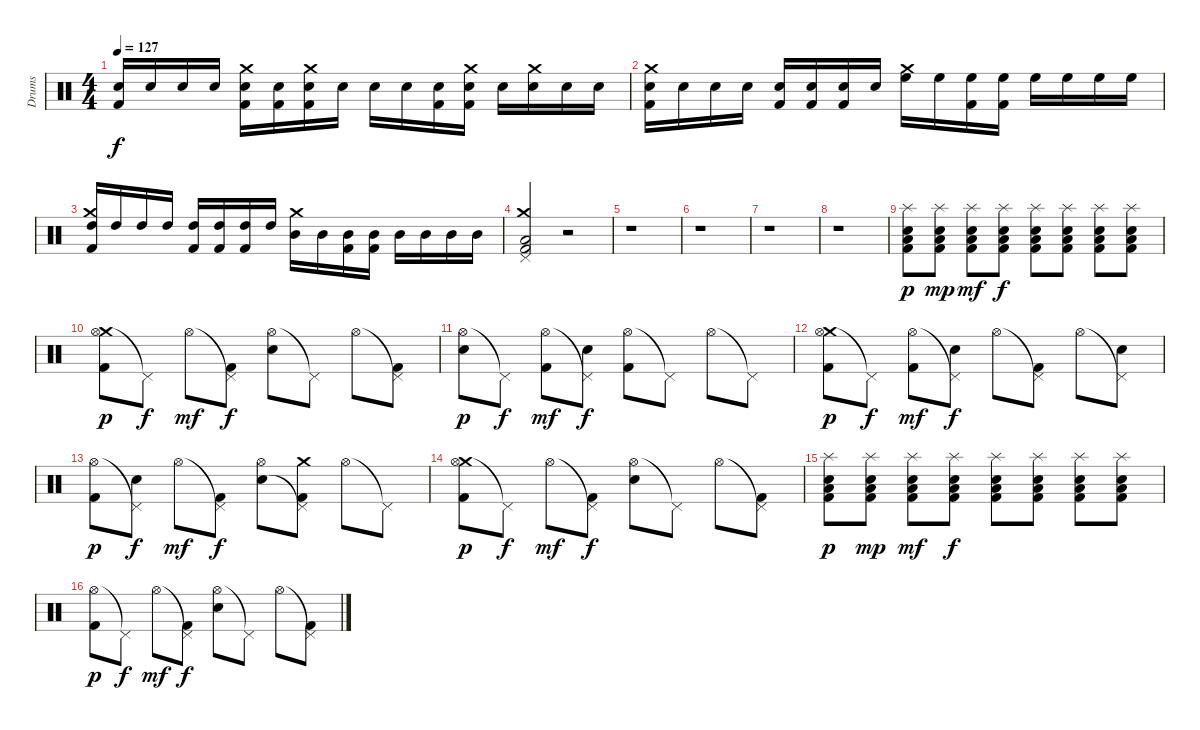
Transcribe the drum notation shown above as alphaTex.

\track ("Drums" "Drums") {instrument percussion}
\staff {score}
\articulation defaults
\ts (4 4)
\tempo 127
\clef neutral
\ks c
("Electric Snare (hit)" "Kick (hit) 2").16{dy f} "Electric Snare (hit)".16 "Electric Snare (hit)".16 "Electric Snare (hit)".16 ("Crash medium (hit)" "Electric Snare (hit)" "Kick (hit) 2").16 ("Electric Snare (hit)" "Kick (hit) 2").16 ("Crash medium (hit)" "Electric Snare (hit)" "Kick (hit) 2").16 "Electric Snare (hit)".16 "Electric Snare (hit)".16 "Electric Snare (hit)".16 ("Electric Snare (hit)" "Kick (hit) 2").16 ("Crash medium (hit)" "Electric Snare (hit)" "Kick (hit) 2").16 "Electric Snare (hit)".16 ("Crash medium (hit)" "Electric Snare (hit)").16 "Electric Snare (hit)".16 "Electric Snare (hit)".16 |
("Crash medium (hit)" "Electric Snare (hit)" "Kick (hit) 2").16 "Electric Snare (hit)".16 "Electric Snare (hit)".16 "Electric Snare (hit)".16 ("Electric Snare (hit)" "Kick (hit) 2").16 ("Electric Snare (hit)" "Kick (hit) 2").16 ("Electric Snare (hit)" "Kick (hit) 2").16 "Electric Snare (hit)".16 ("Crash medium (hit)" "High Floor Tom (hit)").16 "High Floor Tom (hit)".16 ("High Floor Tom (hit)" "Kick (hit) 2").16 ("High Floor Tom (hit)" "Kick (hit) 2").16 "High Floor Tom (hit)".16 "High Floor Tom (hit)".16 "High Floor Tom (hit)".16 "High Floor Tom (hit)".16 |
("Crash medium (hit)" "High Tom (hit)" "Kick (hit) 2").16 "High Tom (hit)".16 "High Tom (hit)".16 "High Tom (hit)".16 ("High Tom (hit)" "Kick (hit) 2").16 ("High Tom (hit)" "Kick (hit) 2").16 ("High Tom (hit)" "Kick (hit) 2").16 "High Tom (hit)".16 ("Crash medium (hit)" "Mid Tom (hit)").16 "Mid Tom (hit)".16 ("Mid Tom (hit)" "Kick (hit) 2").16 ("Mid Tom (hit)" "Kick (hit) 2").16 "Mid Tom (hit)".16 "Mid Tom (hit)".16 "Mid Tom (hit)".16 "Mid Tom (hit)".16 |
("Crash medium (hit)" "Pedal Hi-Hat (hit)" "Low Tom (hit)" "Kick (hit) 2").2 r.2 |
r.1 |
r.1 |
r.1 |
r.1 |
("Splash (hit)" "Low Tom (hit)" "Electric Snare (hit)" "Kick (hit) 2").8{dy p} ("Splash (hit)" "Low Tom (hit)" "Electric Snare (hit)" "Kick (hit) 2").8{dy mp} ("Splash (hit)" "Low Tom (hit)" "Electric Snare (hit)" "Kick (hit) 2").8{dy mf} ("Splash (hit)" "Low Tom (hit)" "Electric Snare (hit)" "Kick (hit) 2").8{dy f} ("Splash (hit)" "Low Tom (hit)" "Electric Snare (hit)" "Kick (hit) 2").8 ("Splash (hit)" "Low Tom (hit)" "Electric Snare (hit)" "Kick (hit) 2").8 ("Splash (hit)" "Low Tom (hit)" "Electric Snare (hit)" "Kick (hit) 2").8 ("Splash (hit)" "Low Tom (hit)" "Electric Snare (hit)" "Kick (hit) 2").8 |
("Crash medium (hit)" "Hi-Hat (open)" "Kick (hit) 2").8{dy p} "Pedal Hi-Hat (hit)"{t}.8{dy f} "Hi-Hat (open)".8{dy mf} ("Pedal Hi-Hat (hit)"{t} "Kick (hit) 2").8{dy f} ("Hi-Hat (open)" "Electric Snare (hit)").8 "Pedal Hi-Hat (hit)"{t}.8 "Hi-Hat (open)".8 ("Pedal Hi-Hat (hit)"{t} "Kick (hit) 2").8 |
("Hi-Hat (open)" "Electric Snare (hit)").8{dy p} "Pedal Hi-Hat (hit)"{t}.8{dy f} ("Hi-Hat (open)" "Kick (hit) 2").8{dy mf} ("Pedal Hi-Hat (hit)"{t} "Electric Snare (hit)").8{dy f} ("Hi-Hat (open)" "Kick (hit) 2").8 "Pedal Hi-Hat (hit)"{t}.8 "Hi-Hat (open)".8 "Pedal Hi-Hat (hit)"{t}.8 |
("Crash medium (hit)" "Hi-Hat (open)" "Kick (hit) 2").8{dy p} "Pedal Hi-Hat (hit)"{t}.8{dy f} ("Hi-Hat (open)" "Kick (hit) 2").8{dy mf} ("Pedal Hi-Hat (hit)"{t} "Electric Snare (hit)").8{dy f} "Hi-Hat (open)".8 ("Pedal Hi-Hat (hit)"{t} "Kick (hit) 2").8 "Hi-Hat (open)".8 ("Pedal Hi-Hat (hit)"{t} "Electric Snare (hit)").8 |
("Hi-Hat (open)" "Kick (hit) 2").8{dy p} ("Pedal Hi-Hat (hit)"{t} "Electric Snare (hit)").8{dy f} "Hi-Hat (open)".8{dy mf} ("Pedal Hi-Hat (hit)"{t} "Kick (hit) 2").8{dy f} ("Hi-Hat (open)" "Electric Snare (hit)").8 ("Crash medium (hit)" "Pedal Hi-Hat (hit)"{t} "Kick (hit) 2").8 "Hi-Hat (open)".8 "Pedal Hi-Hat (hit)"{t}.8 |
("Crash medium (hit)" "Hi-Hat (open)" "Kick (hit) 2").8{dy p} "Pedal Hi-Hat (hit)"{t}.8{dy f} "Hi-Hat (open)".8{dy mf} ("Pedal Hi-Hat (hit)"{t} "Kick (hit) 2").8{dy f} ("Hi-Hat (open)" "Electric Snare (hit)").8 "Pedal Hi-Hat (hit)"{t}.8 "Hi-Hat (open)".8 ("Pedal Hi-Hat (hit)"{t} "Kick (hit) 2").8 |
("Splash (hit)" "Low Tom (hit)" "Electric Snare (hit)" "Kick (hit) 2").8{dy p} ("Splash (hit)" "Low Tom (hit)" "Electric Snare (hit)" "Kick (hit) 2").8{dy mp} ("Splash (hit)" "Low Tom (hit)" "Electric Snare (hit)" "Kick (hit) 2").8{dy mf} ("Splash (hit)" "Low Tom (hit)" "Electric Snare (hit)" "Kick (hit) 2").8{dy f} ("Splash (hit)" "Low Tom (hit)" "Electric Snare (hit)" "Kick (hit) 2").8 ("Splash (hit)" "Low Tom (hit)" "Electric Snare (hit)" "Kick (hit) 2").8 ("Splash (hit)" "Low Tom (hit)" "Electric Snare (hit)" "Kick (hit) 2").8 ("Splash (hit)" "Low Tom (hit)" "Electric Snare (hit)" "Kick (hit) 2").8 |
("Hi-Hat (open)" "Kick (hit) 2").8{dy p} "Pedal Hi-Hat (hit)"{t}.8{dy f} "Hi-Hat (open)".8{dy mf} ("Pedal Hi-Hat (hit)"{t} "Kick (hit) 2").8{dy f} ("Hi-Hat (open)" "Electric Snare (hit)").8 "Pedal Hi-Hat (hit)"{t}.8 "Hi-Hat (open)".8 ("Pedal Hi-Hat (hit)"{t} "Kick (hit) 2").8
